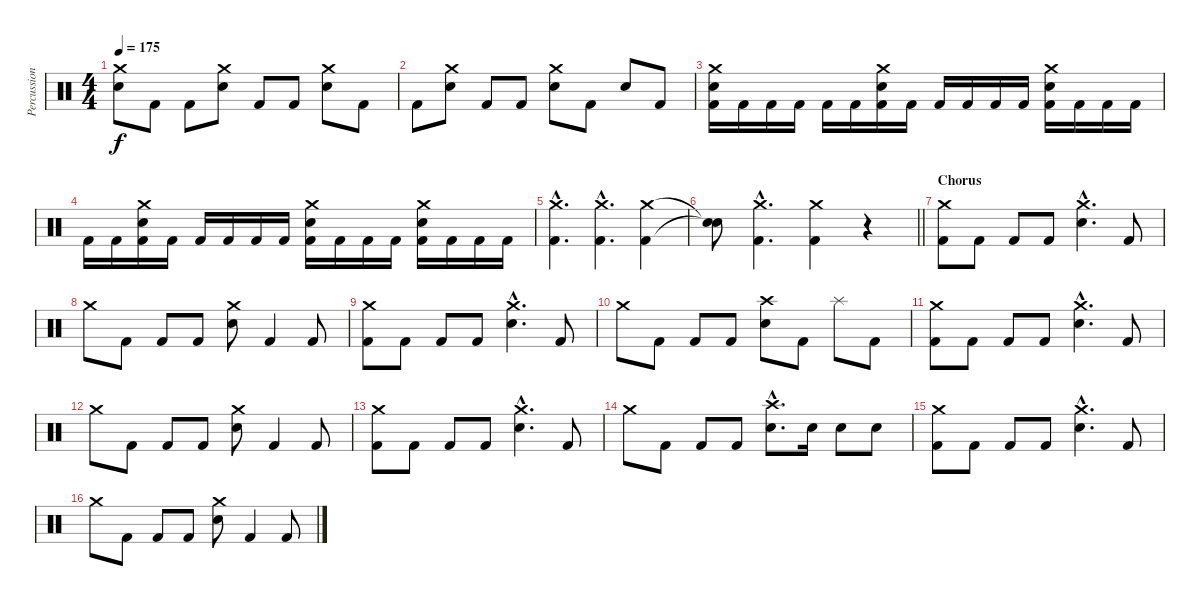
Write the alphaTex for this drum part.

\track ("Percussion" "Percussion") {instrument percussion}
\staff {score}
\articulation defaults
\ts (4 4)
\tempo 175
\clef neutral
\ks c
("Crash medium (hit)" "Electric Snare (hit)").8{dy f} "Kick (hit) 2".8 "Kick (hit) 2".8 ("Crash medium (hit)" "Electric Snare (hit)").8 "Kick (hit) 2".8 "Kick (hit) 2".8 ("Crash medium (hit)" "Electric Snare (hit)").8 "Kick (hit) 2".8 |
"Kick (hit) 2".8 ("Crash medium (hit)" "Electric Snare (hit)").8 "Kick (hit) 2".8 "Kick (hit) 2".8 ("Crash medium (hit)" "Electric Snare (hit)").8 "Kick (hit) 2".8 "Electric Snare (hit)".8 "Kick (hit) 2".8 |
("Crash medium (hit)" "Electric Snare (hit)" "Kick (hit) 2").16 "Kick (hit) 2".16 "Kick (hit) 2".16 "Kick (hit) 2".16 "Kick (hit) 2".16 "Kick (hit) 2".16 ("Crash medium (hit)" "Electric Snare (hit)" "Kick (hit) 2").16 "Kick (hit) 2".16 "Kick (hit) 2".16 "Kick (hit) 2".16 "Kick (hit) 2".16 "Kick (hit) 2".16 ("Crash medium (hit)" "Electric Snare (hit)" "Kick (hit) 2").16 "Kick (hit) 2".16 "Kick (hit) 2".16 "Kick (hit) 2".16 |
"Kick (hit) 2".16 "Kick (hit) 2".16 ("Crash medium (hit)" "Electric Snare (hit)" "Kick (hit) 2").16 "Kick (hit) 2".16 "Kick (hit) 2".16 "Kick (hit) 2".16 "Kick (hit) 2".16 "Kick (hit) 2".16 ("Crash medium (hit)" "Electric Snare (hit)" "Kick (hit) 2").16 "Kick (hit) 2".16 "Kick (hit) 2".16 "Kick (hit) 2".16 ("Crash medium (hit)" "Electric Snare (hit)" "Kick (hit) 2").16 "Kick (hit) 2".16 "Kick (hit) 2".16 "Kick (hit) 2".16 |
("Crash medium (hit)"{hac} "Kick (hit) 2"{hac}).4{d} ("Crash medium (hit)"{hac} "Kick (hit) 2"{hac}).4{d} ("Crash medium (hit)" "Kick (hit) 2").4 |
\barLineRight lightlight
("Snare (hit)"{t} "Snare (hit)"{t}).8 ("Crash medium (hit)"{hac} "Kick (hit) 2"{hac}).4{d} ("Crash medium (hit)" "Kick (hit) 2").4 r.4 |
\section ("" "Chorus")
("Crash medium (hit)" "Kick (hit) 2").8 "Kick (hit) 2".8 "Kick (hit) 2".8 "Kick (hit) 2".8 ("Crash medium (hit)"{hac} "Electric Snare (hit)"{hac}).4{d} "Kick (hit) 2".8 |
"Crash medium (hit)".8 "Kick (hit) 2".8 "Kick (hit) 2".8 "Kick (hit) 2".8 ("Crash medium (hit)" "Electric Snare (hit)").8 "Kick (hit) 2".4 "Kick (hit) 2".8 |
("Crash medium (hit)" "Kick (hit) 2").8 "Kick (hit) 2".8 "Kick (hit) 2".8 "Kick (hit) 2".8 ("Crash medium (hit)"{hac} "Electric Snare (hit)"{hac}).4{d} "Kick (hit) 2".8 |
"Crash medium (hit)".8 "Kick (hit) 2".8 "Kick (hit) 2".8 "Kick (hit) 2".8 ("Crash high (hit)" "Electric Snare (hit)").8 "Kick (hit) 2".8 "Splash (hit)".8 "Kick (hit) 2".8 |
("Crash medium (hit)" "Kick (hit) 2").8 "Kick (hit) 2".8 "Kick (hit) 2".8 "Kick (hit) 2".8 ("Crash medium (hit)"{hac} "Electric Snare (hit)"{hac}).4{d} "Kick (hit) 2".8 |
"Crash medium (hit)".8 "Kick (hit) 2".8 "Kick (hit) 2".8 "Kick (hit) 2".8 ("Crash medium (hit)" "Electric Snare (hit)").8 "Kick (hit) 2".4 "Kick (hit) 2".8 |
("Crash medium (hit)" "Kick (hit) 2").8 "Kick (hit) 2".8 "Kick (hit) 2".8 "Kick (hit) 2".8 ("Crash medium (hit)"{hac} "Electric Snare (hit)"{hac}).4{d} "Kick (hit) 2".8 |
"Crash medium (hit)".8 "Kick (hit) 2".8 "Kick (hit) 2".8 "Kick (hit) 2".8 ("Crash high (hit)"{hac} "Electric Snare (hit)"{hac}).8{d} "Electric Snare (hit)".16 "Electric Snare (hit)".8 "Electric Snare (hit)".8 |
("Crash medium (hit)" "Kick (hit) 2").8 "Kick (hit) 2".8 "Kick (hit) 2".8 "Kick (hit) 2".8 ("Crash medium (hit)"{hac} "Electric Snare (hit)"{hac}).4{d} "Kick (hit) 2".8 |
"Crash medium (hit)".8 "Kick (hit) 2".8 "Kick (hit) 2".8 "Kick (hit) 2".8 ("Crash medium (hit)" "Electric Snare (hit)").8 "Kick (hit) 2".4 "Kick (hit) 2".8
